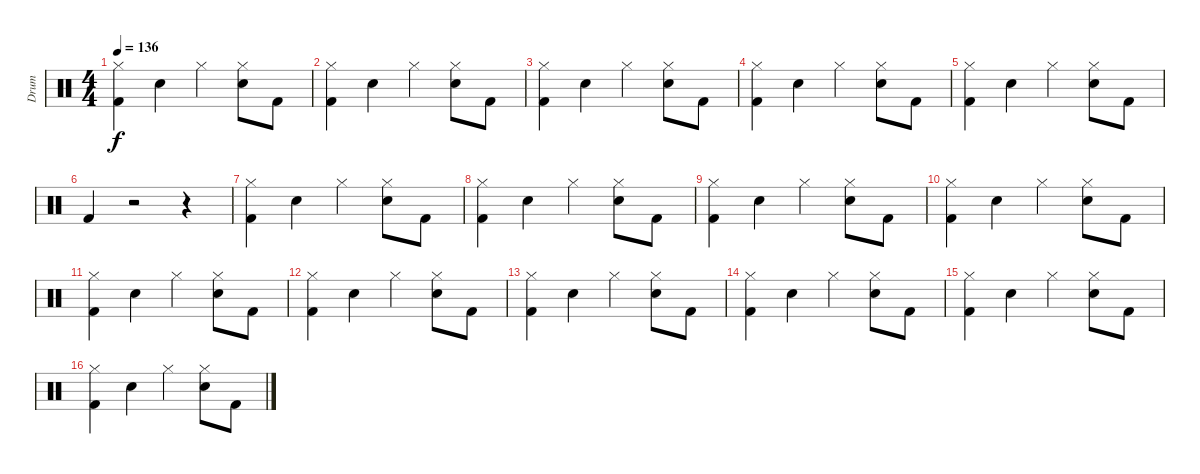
\track ("Drum" "Drum") {instrument percussion}
\staff {score}
\articulation defaults
\ts (4 4)
\tempo 136
\clef neutral
\ks c
("Hi-Hat (closed)" "Kick (hit) 2").4{dy f} "Snare (hit) 2".4 "Hi-Hat (closed)".4 ("Hi-Hat (closed)" "Snare (hit) 2").8 "Kick (hit) 2".8 |
("Hi-Hat (closed)" "Kick (hit) 2").4 "Snare (hit) 2".4 "Hi-Hat (closed)".4 ("Hi-Hat (closed)" "Snare (hit) 2").8 "Kick (hit) 2".8 |
("Hi-Hat (closed)" "Kick (hit) 2").4 "Snare (hit) 2".4 "Hi-Hat (closed)".4 ("Hi-Hat (closed)" "Snare (hit) 2").8 "Kick (hit) 2".8 |
("Hi-Hat (closed)" "Kick (hit) 2").4 "Snare (hit) 2".4 "Hi-Hat (closed)".4 ("Hi-Hat (closed)" "Snare (hit) 2").8 "Kick (hit) 2".8 |
("Hi-Hat (closed)" "Kick (hit) 2").4 "Snare (hit) 2".4 "Hi-Hat (closed)".4 ("Hi-Hat (closed)" "Snare (hit) 2").8 "Kick (hit) 2".8 |
"Kick (hit) 2".4 r.2 r.4 |
("Hi-Hat (closed)" "Kick (hit) 2").4 "Snare (hit) 2".4 "Hi-Hat (closed)".4 ("Hi-Hat (closed)" "Snare (hit) 2").8 "Kick (hit) 2".8 |
("Hi-Hat (closed)" "Kick (hit) 2").4 "Snare (hit) 2".4 "Hi-Hat (closed)".4 ("Hi-Hat (closed)" "Snare (hit) 2").8 "Kick (hit) 2".8 |
("Hi-Hat (closed)" "Kick (hit) 2").4 "Snare (hit) 2".4 "Hi-Hat (closed)".4 ("Hi-Hat (closed)" "Snare (hit) 2").8 "Kick (hit) 2".8 |
("Hi-Hat (closed)" "Kick (hit) 2").4 "Snare (hit) 2".4 "Hi-Hat (closed)".4 ("Hi-Hat (closed)" "Snare (hit) 2").8 "Kick (hit) 2".8 |
("Hi-Hat (closed)" "Kick (hit) 2").4 "Snare (hit) 2".4 "Hi-Hat (closed)".4 ("Hi-Hat (closed)" "Snare (hit) 2").8 "Kick (hit) 2".8 |
("Hi-Hat (closed)" "Kick (hit) 2").4 "Snare (hit) 2".4 "Hi-Hat (closed)".4 ("Hi-Hat (closed)" "Snare (hit) 2").8 "Kick (hit) 2".8 |
("Hi-Hat (closed)" "Kick (hit) 2").4 "Snare (hit) 2".4 "Hi-Hat (closed)".4 ("Hi-Hat (closed)" "Snare (hit) 2").8 "Kick (hit) 2".8 |
("Hi-Hat (closed)" "Kick (hit) 2").4 "Snare (hit) 2".4 "Hi-Hat (closed)".4 ("Hi-Hat (closed)" "Snare (hit) 2").8 "Kick (hit) 2".8 |
("Hi-Hat (closed)" "Kick (hit) 2").4 "Snare (hit) 2".4 "Hi-Hat (closed)".4 ("Hi-Hat (closed)" "Snare (hit) 2").8 "Kick (hit) 2".8 |
("Hi-Hat (closed)" "Kick (hit) 2").4 "Snare (hit) 2".4 "Hi-Hat (closed)".4 ("Hi-Hat (closed)" "Snare (hit) 2").8 "Kick (hit) 2".8
